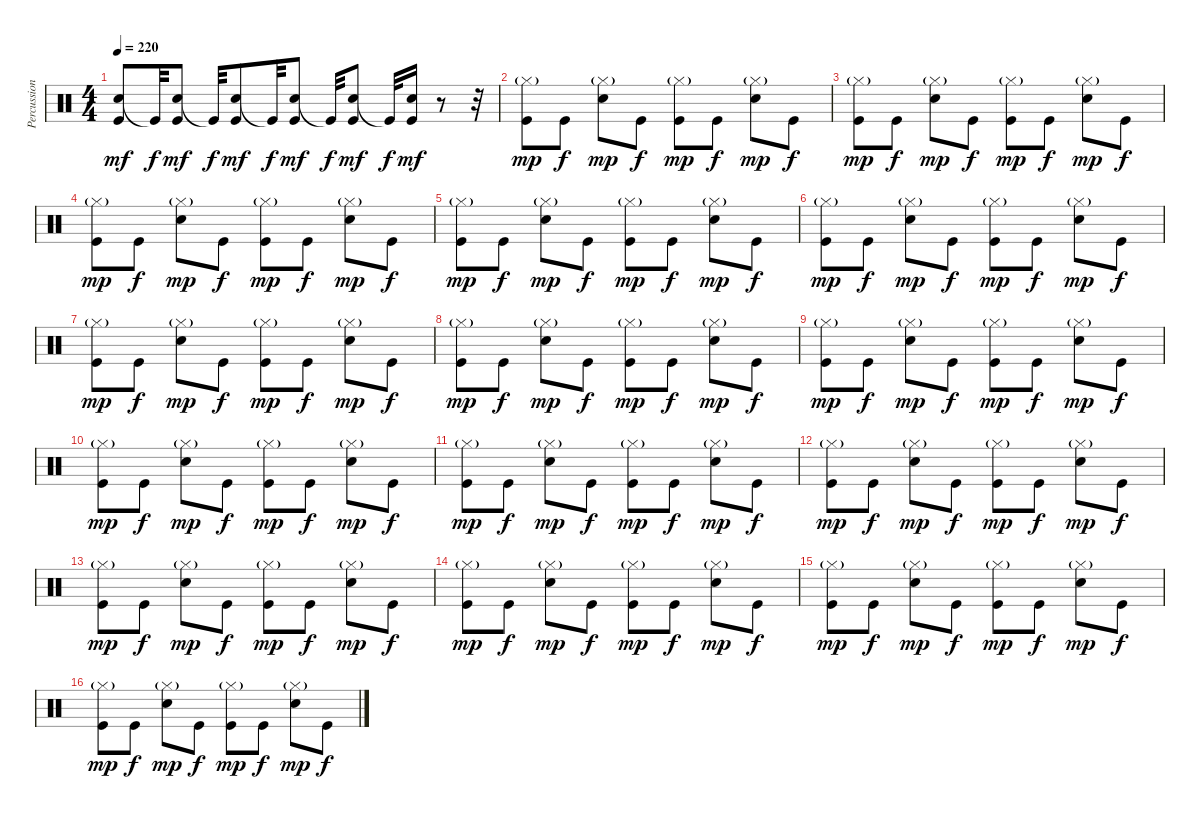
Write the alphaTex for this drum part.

\track ("Percussion" "Percussion") {instrument percussion}
\staff {score}
\articulation defaults
\ts (4 4)
\tempo 220
\clef neutral
\ks c
("Electric Snare (hit)" "Kick (hit)").8{dy mf} "Kick (hit)"{t}.32{dy f} ("Electric Snare (hit)" "Kick (hit)").8{dy mf} "Kick (hit)"{t}.32{dy f} ("Electric Snare (hit)" "Kick (hit)").8{dy mf} "Kick (hit)"{t}.32{dy f} ("Electric Snare (hit)" "Kick (hit)").8{dy mf} "Kick (hit)"{t}.32{dy f} ("Electric Snare (hit)" "Kick (hit)").8{dy mf} "Kick (hit)"{t}.32{dy f} ("Electric Snare (hit)" "Kick (hit)").16{dy mf} r.8 r.32 |
("Hi-Hat (closed)"{g} "Kick (hit)").8{dy mp} "Kick (hit)".8{dy f} ("Hi-Hat (closed)"{g} "Electric Snare (hit)").8{dy mp} "Kick (hit)".8{dy f} ("Hi-Hat (closed)"{g} "Kick (hit)").8{dy mp} "Kick (hit)".8{dy f} ("Hi-Hat (closed)"{g} "Electric Snare (hit)").8{dy mp} "Kick (hit)".8{dy f} |
("Hi-Hat (closed)"{g} "Kick (hit)").8{dy mp} "Kick (hit)".8{dy f} ("Hi-Hat (closed)"{g} "Electric Snare (hit)").8{dy mp} "Kick (hit)".8{dy f} ("Hi-Hat (closed)"{g} "Kick (hit)").8{dy mp} "Kick (hit)".8{dy f} ("Hi-Hat (closed)"{g} "Electric Snare (hit)").8{dy mp} "Kick (hit)".8{dy f} |
("Hi-Hat (closed)"{g} "Kick (hit)").8{dy mp} "Kick (hit)".8{dy f} ("Hi-Hat (closed)"{g} "Electric Snare (hit)").8{dy mp} "Kick (hit)".8{dy f} ("Hi-Hat (closed)"{g} "Kick (hit)").8{dy mp} "Kick (hit)".8{dy f} ("Hi-Hat (closed)"{g} "Electric Snare (hit)").8{dy mp} "Kick (hit)".8{dy f} |
("Hi-Hat (closed)"{g} "Kick (hit)").8{dy mp} "Kick (hit)".8{dy f} ("Hi-Hat (closed)"{g} "Electric Snare (hit)").8{dy mp} "Kick (hit)".8{dy f} ("Hi-Hat (closed)"{g} "Kick (hit)").8{dy mp} "Kick (hit)".8{dy f} ("Hi-Hat (closed)"{g} "Electric Snare (hit)").8{dy mp} "Kick (hit)".8{dy f} |
("Hi-Hat (closed)"{g} "Kick (hit)").8{dy mp} "Kick (hit)".8{dy f} ("Hi-Hat (closed)"{g} "Electric Snare (hit)").8{dy mp} "Kick (hit)".8{dy f} ("Hi-Hat (closed)"{g} "Kick (hit)").8{dy mp} "Kick (hit)".8{dy f} ("Hi-Hat (closed)"{g} "Electric Snare (hit)").8{dy mp} "Kick (hit)".8{dy f} |
("Hi-Hat (closed)"{g} "Kick (hit)").8{dy mp} "Kick (hit)".8{dy f} ("Hi-Hat (closed)"{g} "Electric Snare (hit)").8{dy mp} "Kick (hit)".8{dy f} ("Hi-Hat (closed)"{g} "Kick (hit)").8{dy mp} "Kick (hit)".8{dy f} ("Hi-Hat (closed)"{g} "Electric Snare (hit)").8{dy mp} "Kick (hit)".8{dy f} |
("Hi-Hat (closed)"{g} "Kick (hit)").8{dy mp} "Kick (hit)".8{dy f} ("Hi-Hat (closed)"{g} "Electric Snare (hit)").8{dy mp} "Kick (hit)".8{dy f} ("Hi-Hat (closed)"{g} "Kick (hit)").8{dy mp} "Kick (hit)".8{dy f} ("Hi-Hat (closed)"{g} "Electric Snare (hit)").8{dy mp} "Kick (hit)".8{dy f} |
("Hi-Hat (closed)"{g} "Kick (hit)").8{dy mp} "Kick (hit)".8{dy f} ("Hi-Hat (closed)"{g} "Electric Snare (hit)").8{dy mp} "Kick (hit)".8{dy f} ("Hi-Hat (closed)"{g} "Kick (hit)").8{dy mp} "Kick (hit)".8{dy f} ("Hi-Hat (closed)"{g} "Electric Snare (hit)").8{dy mp} "Kick (hit)".8{dy f} |
("Hi-Hat (closed)"{g} "Kick (hit)").8{dy mp} "Kick (hit)".8{dy f} ("Hi-Hat (closed)"{g} "Electric Snare (hit)").8{dy mp} "Kick (hit)".8{dy f} ("Hi-Hat (closed)"{g} "Kick (hit)").8{dy mp} "Kick (hit)".8{dy f} ("Hi-Hat (closed)"{g} "Electric Snare (hit)").8{dy mp} "Kick (hit)".8{dy f} |
("Hi-Hat (closed)"{g} "Kick (hit)").8{dy mp} "Kick (hit)".8{dy f} ("Hi-Hat (closed)"{g} "Electric Snare (hit)").8{dy mp} "Kick (hit)".8{dy f} ("Hi-Hat (closed)"{g} "Kick (hit)").8{dy mp} "Kick (hit)".8{dy f} ("Hi-Hat (closed)"{g} "Electric Snare (hit)").8{dy mp} "Kick (hit)".8{dy f} |
("Hi-Hat (closed)"{g} "Kick (hit)").8{dy mp} "Kick (hit)".8{dy f} ("Hi-Hat (closed)"{g} "Electric Snare (hit)").8{dy mp} "Kick (hit)".8{dy f} ("Hi-Hat (closed)"{g} "Kick (hit)").8{dy mp} "Kick (hit)".8{dy f} ("Hi-Hat (closed)"{g} "Electric Snare (hit)").8{dy mp} "Kick (hit)".8{dy f} |
("Hi-Hat (closed)"{g} "Kick (hit)").8{dy mp} "Kick (hit)".8{dy f} ("Hi-Hat (closed)"{g} "Electric Snare (hit)").8{dy mp} "Kick (hit)".8{dy f} ("Hi-Hat (closed)"{g} "Kick (hit)").8{dy mp} "Kick (hit)".8{dy f} ("Hi-Hat (closed)"{g} "Electric Snare (hit)").8{dy mp} "Kick (hit)".8{dy f} |
("Hi-Hat (closed)"{g} "Kick (hit)").8{dy mp} "Kick (hit)".8{dy f} ("Hi-Hat (closed)"{g} "Electric Snare (hit)").8{dy mp} "Kick (hit)".8{dy f} ("Hi-Hat (closed)"{g} "Kick (hit)").8{dy mp} "Kick (hit)".8{dy f} ("Hi-Hat (closed)"{g} "Electric Snare (hit)").8{dy mp} "Kick (hit)".8{dy f} |
("Hi-Hat (closed)"{g} "Kick (hit)").8{dy mp} "Kick (hit)".8{dy f} ("Hi-Hat (closed)"{g} "Electric Snare (hit)").8{dy mp} "Kick (hit)".8{dy f} ("Hi-Hat (closed)"{g} "Kick (hit)").8{dy mp} "Kick (hit)".8{dy f} ("Hi-Hat (closed)"{g} "Electric Snare (hit)").8{dy mp} "Kick (hit)".8{dy f} |
("Hi-Hat (closed)"{g} "Kick (hit)").8{dy mp} "Kick (hit)".8{dy f} ("Hi-Hat (closed)"{g} "Electric Snare (hit)").8{dy mp} "Kick (hit)".8{dy f} ("Hi-Hat (closed)"{g} "Kick (hit)").8{dy mp} "Kick (hit)".8{dy f} ("Hi-Hat (closed)"{g} "Electric Snare (hit)").8{dy mp} "Kick (hit)".8{dy f}
